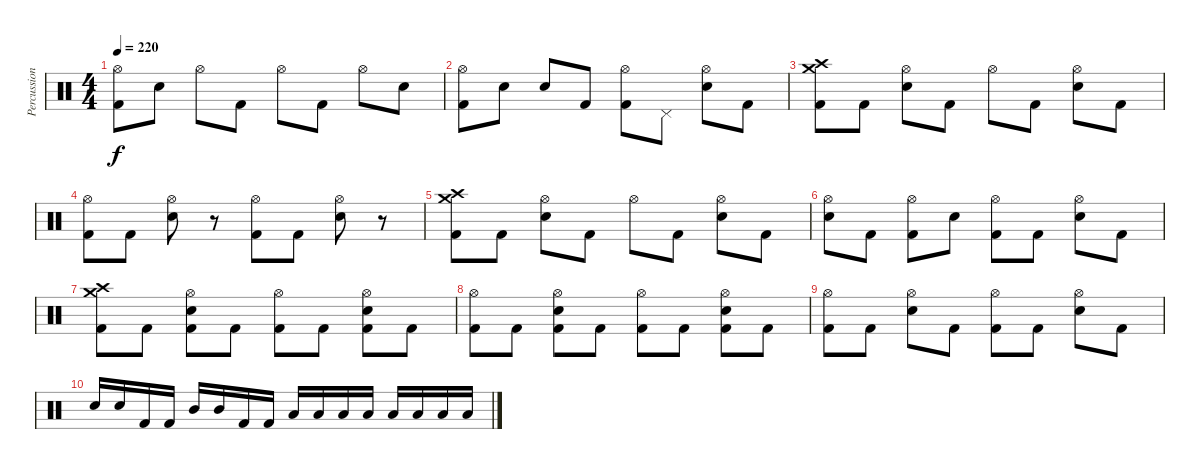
\track ("Percussion" "Percussion") {instrument percussion}
\staff {score}
\articulation defaults
\ts (4 4)
\tempo 220
\clef neutral
\ks c
("Hi-Hat (open)" "Kick (hit) 2").8{dy f} "Electric Snare (hit)".8 "Hi-Hat (open)".8 "Kick (hit) 2".8 "Hi-Hat (open)".8 "Kick (hit) 2".8 "Hi-Hat (open)".8 "Electric Snare (hit)".8 |
("Hi-Hat (open)" "Kick (hit) 2").8 "Electric Snare (hit)".8 "Electric Snare (hit)".8 "Kick (hit) 2".8 ("Hi-Hat (open)" "Kick (hit) 2").8 "Pedal Hi-Hat (hit)".8 ("Hi-Hat (open)" "Electric Snare (hit)").8 "Kick (hit) 2".8 |
("Crash high (hit)" "Crash medium (hit)" "Kick (hit) 2").8 "Kick (hit) 2".8 ("Hi-Hat (open)" "Electric Snare (hit)").8 "Kick (hit) 2".8 "Hi-Hat (open)".8 "Kick (hit) 2".8 ("Hi-Hat (open)" "Electric Snare (hit)").8 "Kick (hit) 2".8 |
("Hi-Hat (open)" "Kick (hit) 2").8 "Kick (hit) 2".8 ("Hi-Hat (open)" "Electric Snare (hit)").8 r.8 ("Hi-Hat (open)" "Kick (hit) 2").8 "Kick (hit) 2".8 ("Hi-Hat (open)" "Electric Snare (hit)").8 r.8 |
("Crash high (hit)" "Crash medium (hit)" "Kick (hit) 2").8 "Kick (hit) 2".8 ("Hi-Hat (open)" "Electric Snare (hit)").8 "Kick (hit) 2".8 "Hi-Hat (open)".8 "Kick (hit) 2".8 ("Hi-Hat (open)" "Electric Snare (hit)").8 "Kick (hit) 2".8 |
("Hi-Hat (open)" "Electric Snare (hit)").8 "Kick (hit) 2".8 ("Hi-Hat (open)" "Kick (hit) 2").8 "Electric Snare (hit)".8 ("Hi-Hat (open)" "Kick (hit) 2").8 "Kick (hit) 2".8 ("Hi-Hat (open)" "Electric Snare (hit)").8 "Kick (hit) 2".8 |
("Crash high (hit)" "Crash medium (hit)" "Kick (hit) 2").8 "Kick (hit) 2".8 ("Hi-Hat (open)" "Electric Snare (hit)" "Kick (hit) 2").8 "Kick (hit) 2".8 ("Hi-Hat (open)" "Kick (hit) 2").8 "Kick (hit) 2".8 ("Hi-Hat (open)" "Electric Snare (hit)" "Kick (hit) 2").8 "Kick (hit) 2".8 |
("Hi-Hat (open)" "Kick (hit) 2").8 "Kick (hit) 2".8 ("Hi-Hat (open)" "Electric Snare (hit)" "Kick (hit) 2").8 "Kick (hit) 2".8 ("Hi-Hat (open)" "Kick (hit) 2").8 "Kick (hit) 2".8 ("Hi-Hat (open)" "Electric Snare (hit)" "Kick (hit) 2").8 "Kick (hit) 2".8 |
("Hi-Hat (open)" "Kick (hit) 2").8 "Kick (hit) 2".8 ("Hi-Hat (open)" "Electric Snare (hit)").8 "Kick (hit) 2".8 ("Hi-Hat (open)" "Kick (hit) 2").8 "Kick (hit) 2".8 ("Hi-Hat (open)" "Electric Snare (hit)").8 "Kick (hit) 2".8 |
"Electric Snare (hit)".16 "Electric Snare (hit)".16 "Kick (hit) 2".16 "Kick (hit) 2".16 "Mid Tom (hit)".16 "Mid Tom (hit)".16 "Kick (hit) 2".16 "Kick (hit) 2".16 "Low Tom (hit)".16 "Low Tom (hit)".16 "Low Tom (hit)".16 "Low Tom (hit)".16 "Low Floor Tom (hit)".16 "Low Floor Tom (hit)".16 "Low Floor Tom (hit)".16 "Low Floor Tom (hit)".16
